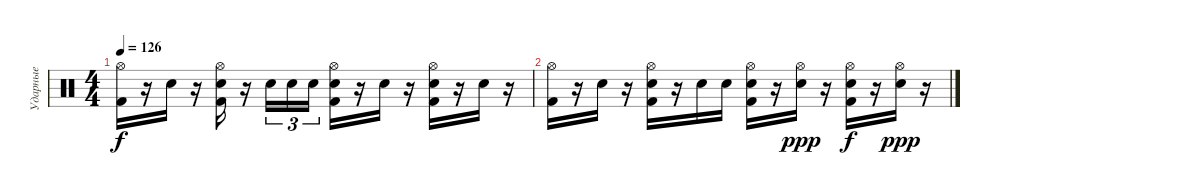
\track ("Ударные" "Ударные") {instrument percussion}
\staff {score}
\articulation defaults
\ts (4 4)
\tempo 126
\clef neutral
\ks c
("Hi-Hat (open)" "Kick (hit) 2").16{dy f} r.16 "Electric Snare (hit)".16 r.16 ("Hi-Hat (open)" "Electric Snare (hit)" "Kick (hit) 2").16 r.16 "Electric Snare (hit)".16{tu (3 2)} "Electric Snare (hit)".16{tu (3 2)} "Electric Snare (hit)".16{tu (3 2)} ("Hi-Hat (open)" "Electric Snare (hit)" "Kick (hit) 2").16 r.16 "Electric Snare (hit)".16 r.16 ("Hi-Hat (open)" "Electric Snare (hit)" "Kick (hit) 2").16 r.16 "Electric Snare (hit)".16 r.16 |
("Hi-Hat (open)" "Kick (hit) 2").16 r.16 "Electric Snare (hit)".16 r.16 ("Hi-Hat (open)" "Electric Snare (hit)" "Kick (hit) 2").16 r.16 "Electric Snare (hit)".16 "Electric Snare (hit)".16 ("Hi-Hat (open)" "Electric Snare (hit)" "Kick (hit) 2").16 r.16 ("Hi-Hat (open)" "Electric Snare (hit)").16{dy ppp} r.16 ("Hi-Hat (open)" "Electric Snare (hit)" "Kick (hit) 2").16{dy f} r.16 ("Hi-Hat (open)" "Electric Snare (hit)").16{dy ppp} r.16
